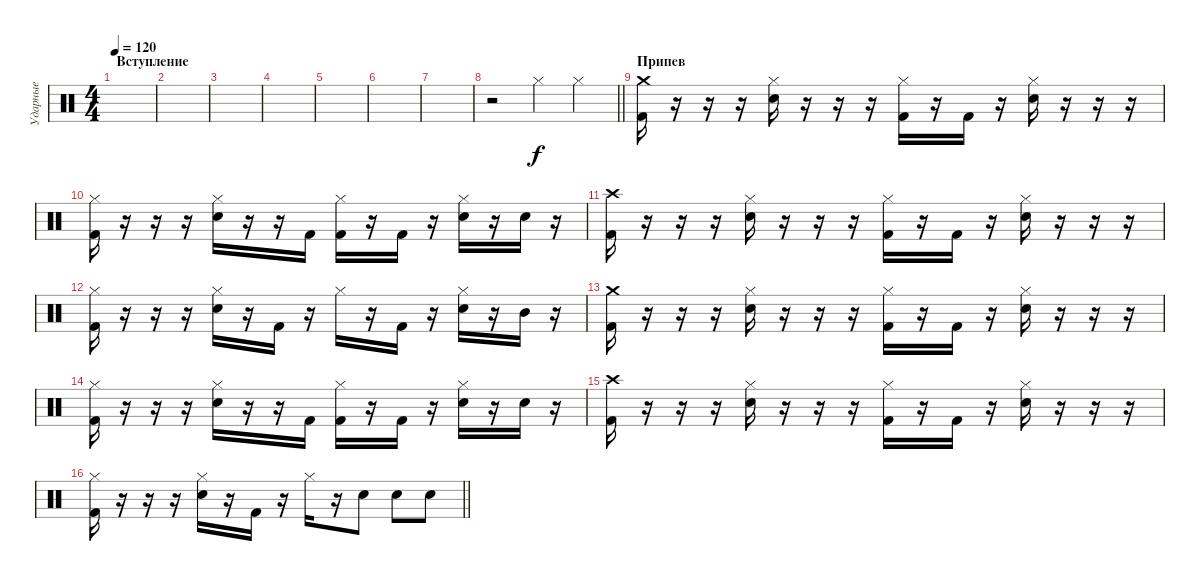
\track ("Ударные" "Ударные") {instrument percussion}
\staff {score}
\articulation defaults
\ts (4 4)
\section ("" "Вступление")
\tempo 120
\clef neutral
\ks c
|
|
|
|
|
|
|
\barLineRight lightlight
r.2 "Hi-Hat (closed)".4 "Hi-Hat (closed)".4 |
\section ("" "Припев")
("Kick (hit) 2" "Crash medium (hit)").16 r.16 r.16 r.16 ("Hi-Hat (closed)" "Electric Snare (hit)").16 r.16 r.16 r.16 ("Hi-Hat (closed)" "Kick (hit) 2").16 r.16 "Kick (hit) 2".16 r.16 ("Hi-Hat (closed)" "Electric Snare (hit)").16 r.16 r.16 r.16 |
("Kick (hit) 2" "Hi-Hat (closed)").16 r.16 r.16 r.16 ("Hi-Hat (closed)" "Electric Snare (hit)").16 r.16 r.16 "Kick (hit) 2".16 ("Hi-Hat (closed)" "Kick (hit) 2").16 r.16 "Kick (hit) 2".16 r.16 ("Hi-Hat (closed)" "Electric Snare (hit)").16 r.16 "Electric Snare (hit)".16 r.16 |
("Kick (hit) 2" "Crash high (hit)").16 r.16 r.16 r.16 ("Hi-Hat (closed)" "Electric Snare (hit)").16 r.16 r.16 r.16 ("Hi-Hat (closed)" "Kick (hit) 2").16 r.16 "Kick (hit) 2".16 r.16 ("Hi-Hat (closed)" "Electric Snare (hit)").16 r.16 r.16 r.16 |
("Kick (hit) 2" "Hi-Hat (closed)").16 r.16 r.16 r.16 ("Hi-Hat (closed)" "Electric Snare (hit)").16 r.16 "Kick (hit) 2".16 r.16 "Hi-Hat (closed)".16 r.16 "Kick (hit) 2".16 r.16 ("Hi-Hat (closed)" "Electric Snare (hit)").16 r.16 "Mid Tom (hit)".16 r.16 |
("Kick (hit) 2" "Crash medium (hit)").16 r.16 r.16 r.16 ("Hi-Hat (closed)" "Electric Snare (hit)").16 r.16 r.16 r.16 ("Hi-Hat (closed)" "Kick (hit) 2").16 r.16 "Kick (hit) 2".16 r.16 ("Hi-Hat (closed)" "Electric Snare (hit)").16 r.16 r.16 r.16 |
("Kick (hit) 2" "Hi-Hat (closed)").16 r.16 r.16 r.16 ("Hi-Hat (closed)" "Electric Snare (hit)").16 r.16 r.16 "Kick (hit) 2".16 ("Hi-Hat (closed)" "Kick (hit) 2").16 r.16 "Kick (hit) 2".16 r.16 ("Hi-Hat (closed)" "Electric Snare (hit)").16 r.16 "Electric Snare (hit)".16 r.16 |
("Kick (hit) 2" "Crash high (hit)").16 r.16 r.16 r.16 ("Hi-Hat (closed)" "Electric Snare (hit)").16 r.16 r.16 r.16 ("Hi-Hat (closed)" "Kick (hit) 2").16 r.16 "Kick (hit) 2".16 r.16 ("Hi-Hat (closed)" "Electric Snare (hit)").16 r.16 r.16 r.16 |
\barLineRight lightlight
("Kick (hit) 2" "Hi-Hat (closed)").16 r.16 r.16 r.16 ("Hi-Hat (closed)" "Electric Snare (hit)").16 r.16 "Kick (hit) 2".16 r.16 "Hi-Hat (closed)".16 r.16 "Electric Snare (hit)".8 "Electric Snare (hit)".8 "Electric Snare (hit)".8
